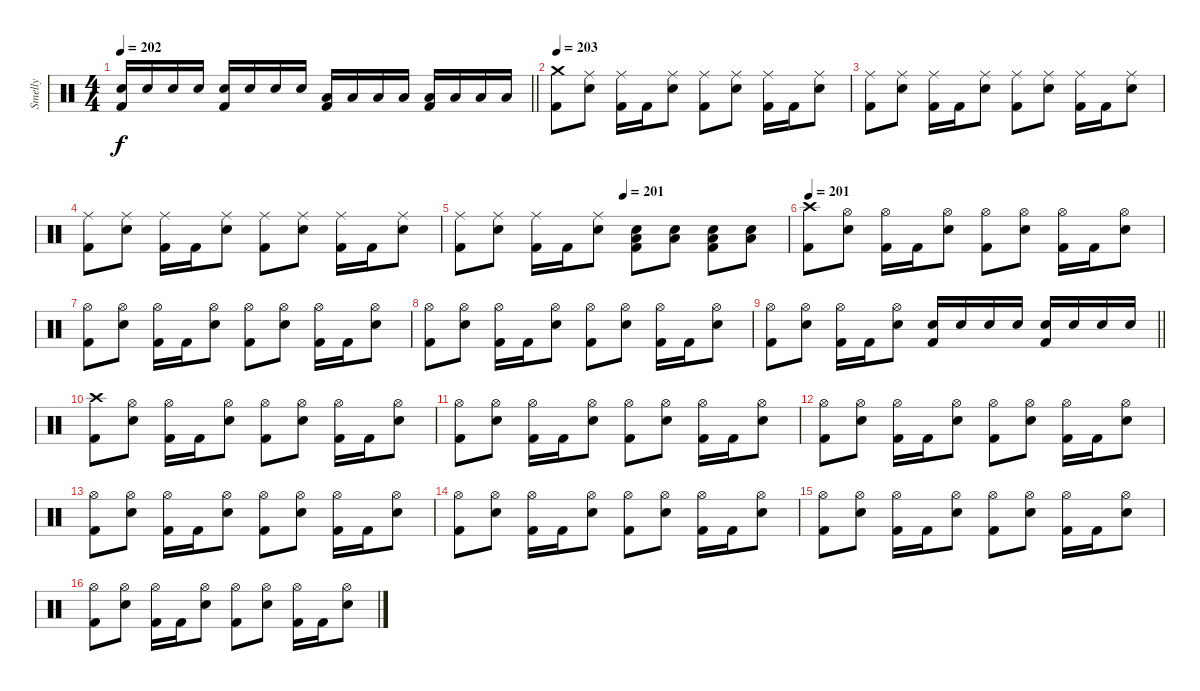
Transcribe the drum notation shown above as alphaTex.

\track ("Smelly" "Smelly") {instrument percussion}
\staff {score}
\articulation defaults
\ts (4 4)
\tempo 202
\clef neutral
\barLineRight lightlight
\ks c
("Electric Snare (hit)" "Kick (hit) 2").16{dy f} "Electric Snare (hit)".16 "Electric Snare (hit)".16 "Electric Snare (hit)".16 ("Electric Snare (hit)" "Kick (hit) 2").16 "Electric Snare (hit)".16 "Electric Snare (hit)".16 "Electric Snare (hit)".16 ("Low Tom (hit)" "Kick (hit) 2").16 "Low Tom (hit)".16 "Low Tom (hit)".16 "Low Tom (hit)".16 ("Low Floor Tom (hit)" "Kick (hit) 2").16 "Low Floor Tom (hit)".16 "Low Floor Tom (hit)".16 "Low Floor Tom (hit)".16 |
\section ("" "")
\tempo 203
("Crash medium (hit)" "Kick (hit) 2").8 ("Ride (middle)" "Electric Snare (hit)").8 ("Ride (middle)" "Kick (hit) 2").16 "Kick (hit) 2".16 ("Ride (middle)" "Electric Snare (hit)").8 ("Ride (middle)" "Kick (hit) 2").8 ("Ride (middle)" "Electric Snare (hit)").8 ("Ride (middle)" "Kick (hit) 2").16 "Kick (hit) 2".16 ("Ride (middle)" "Electric Snare (hit)").8 |
("Ride (middle)" "Kick (hit) 2").8 ("Ride (middle)" "Electric Snare (hit)").8 ("Ride (middle)" "Kick (hit) 2").16 "Kick (hit) 2".16 ("Ride (middle)" "Electric Snare (hit)").8 ("Ride (middle)" "Kick (hit) 2").8 ("Ride (middle)" "Electric Snare (hit)").8 ("Ride (middle)" "Kick (hit) 2").16 "Kick (hit) 2".16 ("Ride (middle)" "Electric Snare (hit)").8 |
("Ride (middle)" "Kick (hit) 2").8 ("Ride (middle)" "Electric Snare (hit)").8 ("Ride (middle)" "Kick (hit) 2").16 "Kick (hit) 2".16 ("Ride (middle)" "Electric Snare (hit)").8 ("Ride (middle)" "Kick (hit) 2").8 ("Ride (middle)" "Electric Snare (hit)").8 ("Ride (middle)" "Kick (hit) 2").16 "Kick (hit) 2".16 ("Ride (middle)" "Electric Snare (hit)").8 |
\tempo (201 0.5)
("Ride (middle)" "Kick (hit) 2").8 ("Ride (middle)" "Electric Snare (hit)").8 ("Ride (middle)" "Kick (hit) 2").16 "Kick (hit) 2".16 ("Ride (middle)" "Electric Snare (hit)").8 ("Electric Snare (hit)" "Low Floor Tom (hit)" "Kick (hit) 2").8 ("Electric Snare (hit)" "Low Floor Tom (hit)").8 ("Electric Snare (hit)" "Low Floor Tom (hit)" "Kick (hit) 2").8 ("Electric Snare (hit)" "Low Floor Tom (hit)").8 |
\tempo 201
("Crash high (hit)" "Kick (hit) 2").8 ("Hi-Hat (open)" "Electric Snare (hit)").8 ("Hi-Hat (open)" "Kick (hit) 2").16 "Kick (hit) 2".16 ("Hi-Hat (open)" "Electric Snare (hit)").8 ("Hi-Hat (open)" "Kick (hit) 2").8 ("Hi-Hat (open)" "Electric Snare (hit)").8 ("Hi-Hat (open)" "Kick (hit) 2").16 "Kick (hit) 2".16 ("Hi-Hat (open)" "Electric Snare (hit)").8 |
("Hi-Hat (open)" "Kick (hit) 2").8 ("Hi-Hat (open)" "Electric Snare (hit)").8 ("Hi-Hat (open)" "Kick (hit) 2").16 "Kick (hit) 2".16 ("Hi-Hat (open)" "Electric Snare (hit)").8 ("Hi-Hat (open)" "Kick (hit) 2").8 ("Hi-Hat (open)" "Electric Snare (hit)").8 ("Hi-Hat (open)" "Kick (hit) 2").16 "Kick (hit) 2".16 ("Hi-Hat (open)" "Electric Snare (hit)").8 |
("Hi-Hat (open)" "Kick (hit) 2").8 ("Hi-Hat (open)" "Electric Snare (hit)").8 ("Hi-Hat (open)" "Kick (hit) 2").16 "Kick (hit) 2".16 ("Hi-Hat (open)" "Electric Snare (hit)").8 ("Hi-Hat (open)" "Kick (hit) 2").8 ("Hi-Hat (open)" "Electric Snare (hit)").8 ("Hi-Hat (open)" "Kick (hit) 2").16 "Kick (hit) 2".16 ("Hi-Hat (open)" "Electric Snare (hit)").8 |
\barLineRight lightlight
("Hi-Hat (open)" "Kick (hit) 2").8 ("Hi-Hat (open)" "Electric Snare (hit)").8 ("Hi-Hat (open)" "Kick (hit) 2").16 "Kick (hit) 2".16 ("Hi-Hat (open)" "Electric Snare (hit)").8 ("Electric Snare (hit)" "Kick (hit) 2").16 "Electric Snare (hit)".16 "Electric Snare (hit)".16 "Electric Snare (hit)".16 ("Electric Snare (hit)" "Kick (hit) 2").16 "Electric Snare (hit)".16 "Electric Snare (hit)".16 "Electric Snare (hit)".16 |
\section ("" "")
("Crash high (hit)" "Kick (hit) 2").8 ("Hi-Hat (open)" "Electric Snare (hit)").8 ("Hi-Hat (open)" "Kick (hit) 2").16 "Kick (hit) 2".16 ("Hi-Hat (open)" "Electric Snare (hit)").8 ("Hi-Hat (open)" "Kick (hit) 2").8 ("Hi-Hat (open)" "Electric Snare (hit)").8 ("Hi-Hat (open)" "Kick (hit) 2").16 "Kick (hit) 2".16 ("Hi-Hat (open)" "Electric Snare (hit)").8 |
("Hi-Hat (open)" "Kick (hit) 2").8 ("Hi-Hat (open)" "Electric Snare (hit)").8 ("Hi-Hat (open)" "Kick (hit) 2").16 "Kick (hit) 2".16 ("Hi-Hat (open)" "Electric Snare (hit)").8 ("Hi-Hat (open)" "Kick (hit) 2").8 ("Hi-Hat (open)" "Electric Snare (hit)").8 ("Hi-Hat (open)" "Kick (hit) 2").16 "Kick (hit) 2".16 ("Hi-Hat (open)" "Electric Snare (hit)").8 |
("Hi-Hat (open)" "Kick (hit) 2").8 ("Hi-Hat (open)" "Electric Snare (hit)").8 ("Hi-Hat (open)" "Kick (hit) 2").16 "Kick (hit) 2".16 ("Hi-Hat (open)" "Electric Snare (hit)").8 ("Hi-Hat (open)" "Kick (hit) 2").8 ("Hi-Hat (open)" "Electric Snare (hit)").8 ("Hi-Hat (open)" "Kick (hit) 2").16 "Kick (hit) 2".16 ("Hi-Hat (open)" "Electric Snare (hit)").8 |
("Hi-Hat (open)" "Kick (hit) 2").8 ("Hi-Hat (open)" "Electric Snare (hit)").8 ("Hi-Hat (open)" "Kick (hit) 2").16 "Kick (hit) 2".16 ("Hi-Hat (open)" "Electric Snare (hit)").8 ("Hi-Hat (open)" "Kick (hit) 2").8 ("Hi-Hat (open)" "Electric Snare (hit)").8 ("Hi-Hat (open)" "Kick (hit) 2").16 "Kick (hit) 2".16 ("Hi-Hat (open)" "Electric Snare (hit)").8 |
("Hi-Hat (open)" "Kick (hit) 2").8 ("Hi-Hat (open)" "Electric Snare (hit)").8 ("Hi-Hat (open)" "Kick (hit) 2").16 "Kick (hit) 2".16 ("Hi-Hat (open)" "Electric Snare (hit)").8 ("Hi-Hat (open)" "Kick (hit) 2").8 ("Hi-Hat (open)" "Electric Snare (hit)").8 ("Hi-Hat (open)" "Kick (hit) 2").16 "Kick (hit) 2".16 ("Hi-Hat (open)" "Electric Snare (hit)").8 |
("Hi-Hat (open)" "Kick (hit) 2").8 ("Hi-Hat (open)" "Electric Snare (hit)").8 ("Hi-Hat (open)" "Kick (hit) 2").16 "Kick (hit) 2".16 ("Hi-Hat (open)" "Electric Snare (hit)").8 ("Hi-Hat (open)" "Kick (hit) 2").8 ("Hi-Hat (open)" "Electric Snare (hit)").8 ("Hi-Hat (open)" "Kick (hit) 2").16 "Kick (hit) 2".16 ("Hi-Hat (open)" "Electric Snare (hit)").8 |
("Hi-Hat (open)" "Kick (hit) 2").8 ("Hi-Hat (open)" "Electric Snare (hit)").8 ("Hi-Hat (open)" "Kick (hit) 2").16 "Kick (hit) 2".16 ("Hi-Hat (open)" "Electric Snare (hit)").8 ("Hi-Hat (open)" "Kick (hit) 2").8 ("Hi-Hat (open)" "Electric Snare (hit)").8 ("Hi-Hat (open)" "Kick (hit) 2").16 "Kick (hit) 2".16 ("Hi-Hat (open)" "Electric Snare (hit)").8
